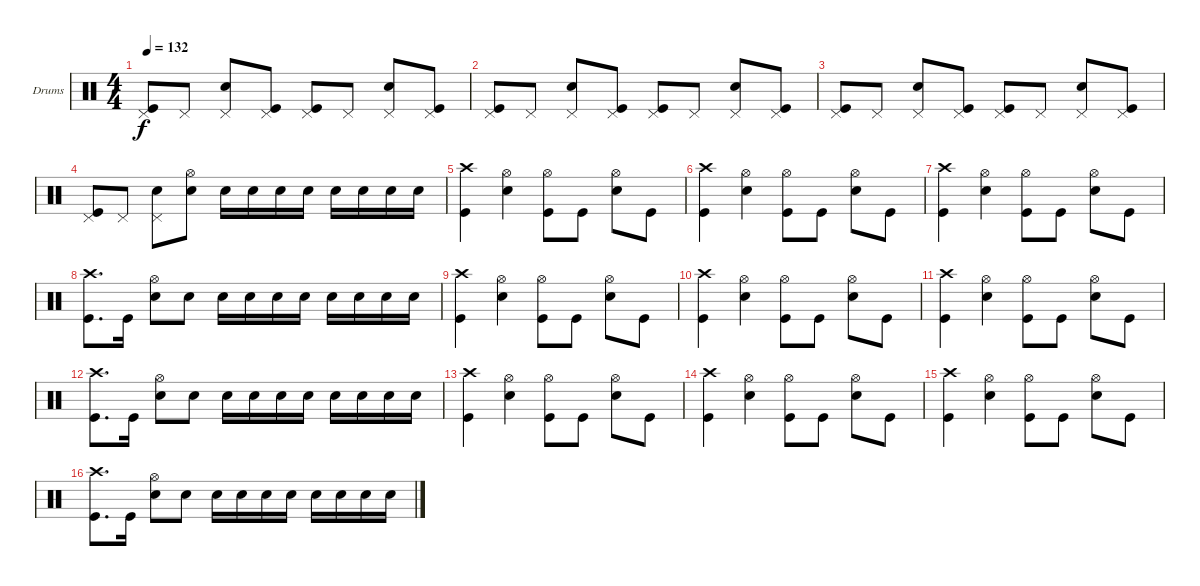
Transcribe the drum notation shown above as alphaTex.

\defaultSystemsLayout 4
\bracketExtendMode groupsimilarinstruments
\firstSystemTrackNameOrientation horizontal
\otherSystemsTrackNameOrientation horizontal
\track ("Drumkit" "Drums") {instrument percussion}
\staff {score}
\articulation defaults
\ts (4 4)
\tempo 132
\clef neutral
\ks c
("Pedal Hi-Hat (hit)" "Kick (hit)").8{dy f} "Pedal Hi-Hat (hit)".8 ("Pedal Hi-Hat (hit)" "Snare (hit) 2").8 ("Pedal Hi-Hat (hit)" "Kick (hit)").8 ("Pedal Hi-Hat (hit)" "Kick (hit)").8 "Pedal Hi-Hat (hit)".8 ("Pedal Hi-Hat (hit)" "Snare (hit) 2").8 ("Pedal Hi-Hat (hit)" "Kick (hit)").8 |
("Pedal Hi-Hat (hit)" "Kick (hit)").8 "Pedal Hi-Hat (hit)".8 ("Pedal Hi-Hat (hit)" "Snare (hit) 2").8 ("Pedal Hi-Hat (hit)" "Kick (hit)").8 ("Pedal Hi-Hat (hit)" "Kick (hit)").8 "Pedal Hi-Hat (hit)".8 ("Pedal Hi-Hat (hit)" "Snare (hit) 2").8 ("Pedal Hi-Hat (hit)" "Kick (hit)").8 |
("Pedal Hi-Hat (hit)" "Kick (hit)").8 "Pedal Hi-Hat (hit)".8 ("Pedal Hi-Hat (hit)" "Snare (hit) 2").8 ("Pedal Hi-Hat (hit)" "Kick (hit)").8 ("Pedal Hi-Hat (hit)" "Kick (hit)").8 "Pedal Hi-Hat (hit)".8 ("Pedal Hi-Hat (hit)" "Snare (hit) 2").8 ("Pedal Hi-Hat (hit)" "Kick (hit)").8 |
("Pedal Hi-Hat (hit)" "Kick (hit)").8 "Pedal Hi-Hat (hit)".8 ("Pedal Hi-Hat (hit)" "Snare (hit) 2").8 ("Hi-Hat (open)" "Snare (hit) 2").8 "Snare (hit) 2".16 "Snare (hit) 2".16 "Snare (hit) 2".16 "Snare (hit) 2".16 "Snare (hit) 2".16 "Snare (hit) 2".16 "Snare (hit) 2".16 "Snare (hit) 2".16 |
("Crash high (hit)" "Kick (hit)").4 ("Hi-Hat (open)" "Snare (hit) 2").4 ("Hi-Hat (open)" "Kick (hit)").8 "Kick (hit)".8 ("Hi-Hat (open)" "Snare (hit) 2").8 "Kick (hit)".8 |
("Crash high (hit)" "Kick (hit)").4 ("Hi-Hat (open)" "Snare (hit) 2").4 ("Hi-Hat (open)" "Kick (hit)").8 "Kick (hit)".8 ("Hi-Hat (open)" "Snare (hit) 2").8 "Kick (hit)".8 |
("Crash high (hit)" "Kick (hit)").4 ("Hi-Hat (open)" "Snare (hit) 2").4 ("Hi-Hat (open)" "Kick (hit)").8 "Kick (hit)".8 ("Hi-Hat (open)" "Snare (hit) 2").8 "Kick (hit)".8 |
("Crash high (hit)" "Kick (hit)").8{d} "Kick (hit)".16 ("Hi-Hat (open)" "Snare (hit) 2").8 "Snare (hit) 2".8 "Snare (hit) 2".16 "Snare (hit) 2".16 "Snare (hit) 2".16 "Snare (hit) 2".16 "Snare (hit) 2".16 "Snare (hit) 2".16 "Snare (hit) 2".16 "Snare (hit) 2".16 |
("Crash high (hit)" "Kick (hit)").4 ("Hi-Hat (open)" "Snare (hit) 2").4 ("Hi-Hat (open)" "Kick (hit)").8 "Kick (hit)".8 ("Hi-Hat (open)" "Snare (hit) 2").8 "Kick (hit)".8 |
("Crash high (hit)" "Kick (hit)").4 ("Hi-Hat (open)" "Snare (hit) 2").4 ("Hi-Hat (open)" "Kick (hit)").8 "Kick (hit)".8 ("Hi-Hat (open)" "Snare (hit) 2").8 "Kick (hit)".8 |
("Crash high (hit)" "Kick (hit)").4 ("Hi-Hat (open)" "Snare (hit) 2").4 ("Hi-Hat (open)" "Kick (hit)").8 "Kick (hit)".8 ("Hi-Hat (open)" "Snare (hit) 2").8 "Kick (hit)".8 |
("Crash high (hit)" "Kick (hit)").8{d} "Kick (hit)".16 ("Hi-Hat (open)" "Snare (hit) 2").8 "Snare (hit) 2".8 "Snare (hit) 2".16 "Snare (hit) 2".16 "Snare (hit) 2".16 "Snare (hit) 2".16 "Snare (hit) 2".16 "Snare (hit) 2".16 "Snare (hit) 2".16 "Snare (hit) 2".16 |
("Crash high (hit)" "Kick (hit)").4 ("Hi-Hat (open)" "Snare (hit) 2").4 ("Hi-Hat (open)" "Kick (hit)").8 "Kick (hit)".8 ("Hi-Hat (open)" "Snare (hit) 2").8 "Kick (hit)".8 |
("Crash high (hit)" "Kick (hit)").4 ("Hi-Hat (open)" "Snare (hit) 2").4 ("Hi-Hat (open)" "Kick (hit)").8 "Kick (hit)".8 ("Hi-Hat (open)" "Snare (hit) 2").8 "Kick (hit)".8 |
("Crash high (hit)" "Kick (hit)").4 ("Hi-Hat (open)" "Snare (hit) 2").4 ("Hi-Hat (open)" "Kick (hit)").8 "Kick (hit)".8 ("Hi-Hat (open)" "Snare (hit) 2").8 "Kick (hit)".8 |
("Crash high (hit)" "Kick (hit)").8{d} "Kick (hit)".16 ("Hi-Hat (open)" "Snare (hit) 2").8 "Snare (hit) 2".8 "Snare (hit) 2".16 "Snare (hit) 2".16 "Snare (hit) 2".16 "Snare (hit) 2".16 "Snare (hit) 2".16 "Snare (hit) 2".16 "Snare (hit) 2".16 "Snare (hit) 2".16
